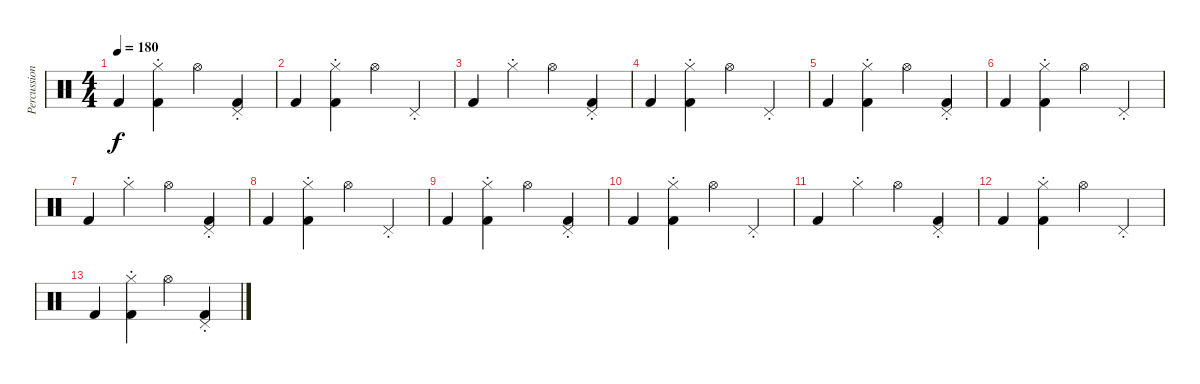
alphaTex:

\track ("Percussion" "Percussion") {instrument percussion}
\staff {score}
\articulation defaults
\ts (4 4)
\tempo 180
\clef neutral
\ks c "Kick (hit) 2".4{dy f}
("Hi-Hat (closed)"{st} "Kick (hit) 2").4 "Hi-Hat (open)".4 ("Pedal Hi-Hat (hit)"{st} "Kick (hit) 2").4 |
"Kick (hit) 2".4 ("Hi-Hat (closed)"{st} "Kick (hit) 2").4 "Hi-Hat (open)".4 "Pedal Hi-Hat (hit)"{st}.4 |
"Kick (hit) 2".4 "Hi-Hat (closed)"{st}.4 "Hi-Hat (open)".4 ("Pedal Hi-Hat (hit)"{st} "Kick (hit) 2").4 |
"Kick (hit) 2".4 ("Hi-Hat (closed)"{st} "Kick (hit) 2").4 "Hi-Hat (open)".4 "Pedal Hi-Hat (hit)"{st}.4 |
"Kick (hit) 2".4 ("Hi-Hat (closed)"{st} "Kick (hit) 2").4 "Hi-Hat (open)".4 ("Pedal Hi-Hat (hit)"{st} "Kick (hit) 2").4 |
"Kick (hit) 2".4 ("Hi-Hat (closed)"{st} "Kick (hit) 2").4 "Hi-Hat (open)".4 "Pedal Hi-Hat (hit)"{st}.4 |
"Kick (hit) 2".4 "Hi-Hat (closed)"{st}.4 "Hi-Hat (open)".4 ("Pedal Hi-Hat (hit)"{st} "Kick (hit) 2").4 |
"Kick (hit) 2".4 ("Hi-Hat (closed)"{st} "Kick (hit) 2").4 "Hi-Hat (open)".4 "Pedal Hi-Hat (hit)"{st}.4 |
"Kick (hit) 2".4 ("Hi-Hat (closed)"{st} "Kick (hit) 2").4 "Hi-Hat (open)".4 ("Pedal Hi-Hat (hit)"{st} "Kick (hit) 2").4 |
"Kick (hit) 2".4 ("Hi-Hat (closed)"{st} "Kick (hit) 2").4 "Hi-Hat (open)".4 "Pedal Hi-Hat (hit)"{st}.4 |
"Kick (hit) 2".4 "Hi-Hat (closed)"{st}.4 "Hi-Hat (open)".4 ("Pedal Hi-Hat (hit)"{st} "Kick (hit) 2").4 |
"Kick (hit) 2".4 ("Hi-Hat (closed)"{st} "Kick (hit) 2").4 "Hi-Hat (open)".4 "Pedal Hi-Hat (hit)"{st}.4 |
"Kick (hit) 2".4 ("Hi-Hat (closed)"{st} "Kick (hit) 2").4 "Hi-Hat (open)".4 ("Pedal Hi-Hat (hit)"{st} "Kick (hit) 2").4
